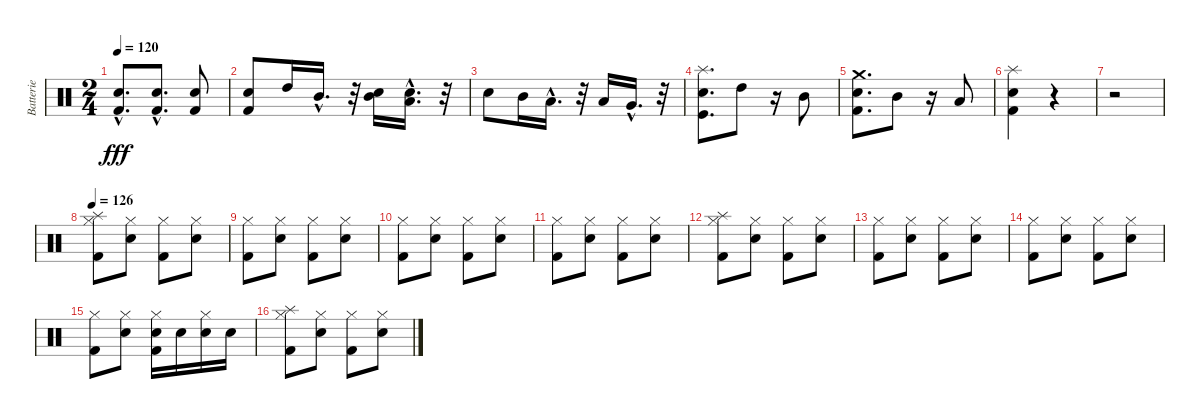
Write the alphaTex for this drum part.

\track ("Batterie" "Batterie") {instrument percussion}
\staff {score}
\articulation defaults
\ts (2 4)
\tempo 120
\clef neutral
\ks c
("Kick (hit) 2"{hac} "Electric Snare (hit)"{hac}).8{d dy fff} ("Kick (hit) 2"{hac} "Electric Snare (hit)"{hac}).8{d} ("Kick (hit) 2" "Electric Snare (hit)").8 |
("Kick (hit) 2" "Electric Snare (hit)").8 "High Tom (hit)".16 "Mid Tom (hit)"{hac}.16{d} r.32 ("Mid Tom (hit)" "Electric Snare (hit)").16 ("Low Tom (hit)"{hac} "Electric Snare (hit)"{hac}).16{d} r.32 |
"Electric Snare (hit)".8 "Mid Tom (hit)".16 "Low Tom (hit)"{hac}.16{d} r.32 "Low Tom (hit)".16 "Very Low Tom (hit)"{hac}.16{d} r.32 |
("Electric Snare (hit)" "Kick (hit)" "Splash (hit)").8{d} "High Tom (hit)".8 r.16 "Mid Tom (hit)".8 |
("Kick (hit) 2" "Electric Snare (hit)" "Crash medium (hit)").8{d} "Mid Tom (hit)".8 r.16 "Low Tom (hit)".8 |
("Kick (hit) 2" "Splash (hit)" "Electric Snare (hit)").4 r.4 |
r.2 |
\tempo 126
("Splash (hit)" "Hi-Hat (closed)" "Kick (hit) 2").8 ("Hi-Hat (closed)" "Electric Snare (hit)").8 ("Hi-Hat (closed)" "Kick (hit) 2").8 ("Hi-Hat (closed)" "Electric Snare (hit)").8 |
("Hi-Hat (closed)" "Kick (hit) 2").8 ("Hi-Hat (closed)" "Electric Snare (hit)").8 ("Hi-Hat (closed)" "Kick (hit) 2").8 ("Hi-Hat (closed)" "Electric Snare (hit)").8 |
("Hi-Hat (closed)" "Kick (hit) 2").8 ("Hi-Hat (closed)" "Electric Snare (hit)").8 ("Hi-Hat (closed)" "Kick (hit) 2").8 ("Hi-Hat (closed)" "Electric Snare (hit)").8 |
("Hi-Hat (closed)" "Kick (hit) 2").8 ("Hi-Hat (closed)" "Electric Snare (hit)").8 ("Hi-Hat (closed)" "Kick (hit) 2").8 ("Hi-Hat (closed)" "Electric Snare (hit)").8 |
("Splash (hit)" "Hi-Hat (closed)" "Kick (hit) 2").8 ("Hi-Hat (closed)" "Electric Snare (hit)").8 ("Hi-Hat (closed)" "Kick (hit) 2").8 ("Hi-Hat (closed)" "Electric Snare (hit)").8 |
("Hi-Hat (closed)" "Kick (hit) 2").8 ("Hi-Hat (closed)" "Electric Snare (hit)").8 ("Hi-Hat (closed)" "Kick (hit) 2").8 ("Hi-Hat (closed)" "Electric Snare (hit)").8 |
("Hi-Hat (closed)" "Kick (hit) 2").8 ("Hi-Hat (closed)" "Electric Snare (hit)").8 ("Hi-Hat (closed)" "Kick (hit) 2").8 ("Hi-Hat (closed)" "Electric Snare (hit)").8 |
("Hi-Hat (closed)" "Kick (hit) 2").8 ("Hi-Hat (closed)" "Electric Snare (hit)").8 ("Electric Snare (hit)" "Hi-Hat (closed)" "Kick (hit) 2").16 "Electric Snare (hit)".16 ("Electric Snare (hit)" "Hi-Hat (closed)").16 "Electric Snare (hit)".16 |
("Splash (hit)" "Hi-Hat (closed)" "Kick (hit) 2").8 ("Hi-Hat (closed)" "Electric Snare (hit)").8 ("Hi-Hat (closed)" "Kick (hit) 2").8 ("Hi-Hat (closed)" "Electric Snare (hit)").8
